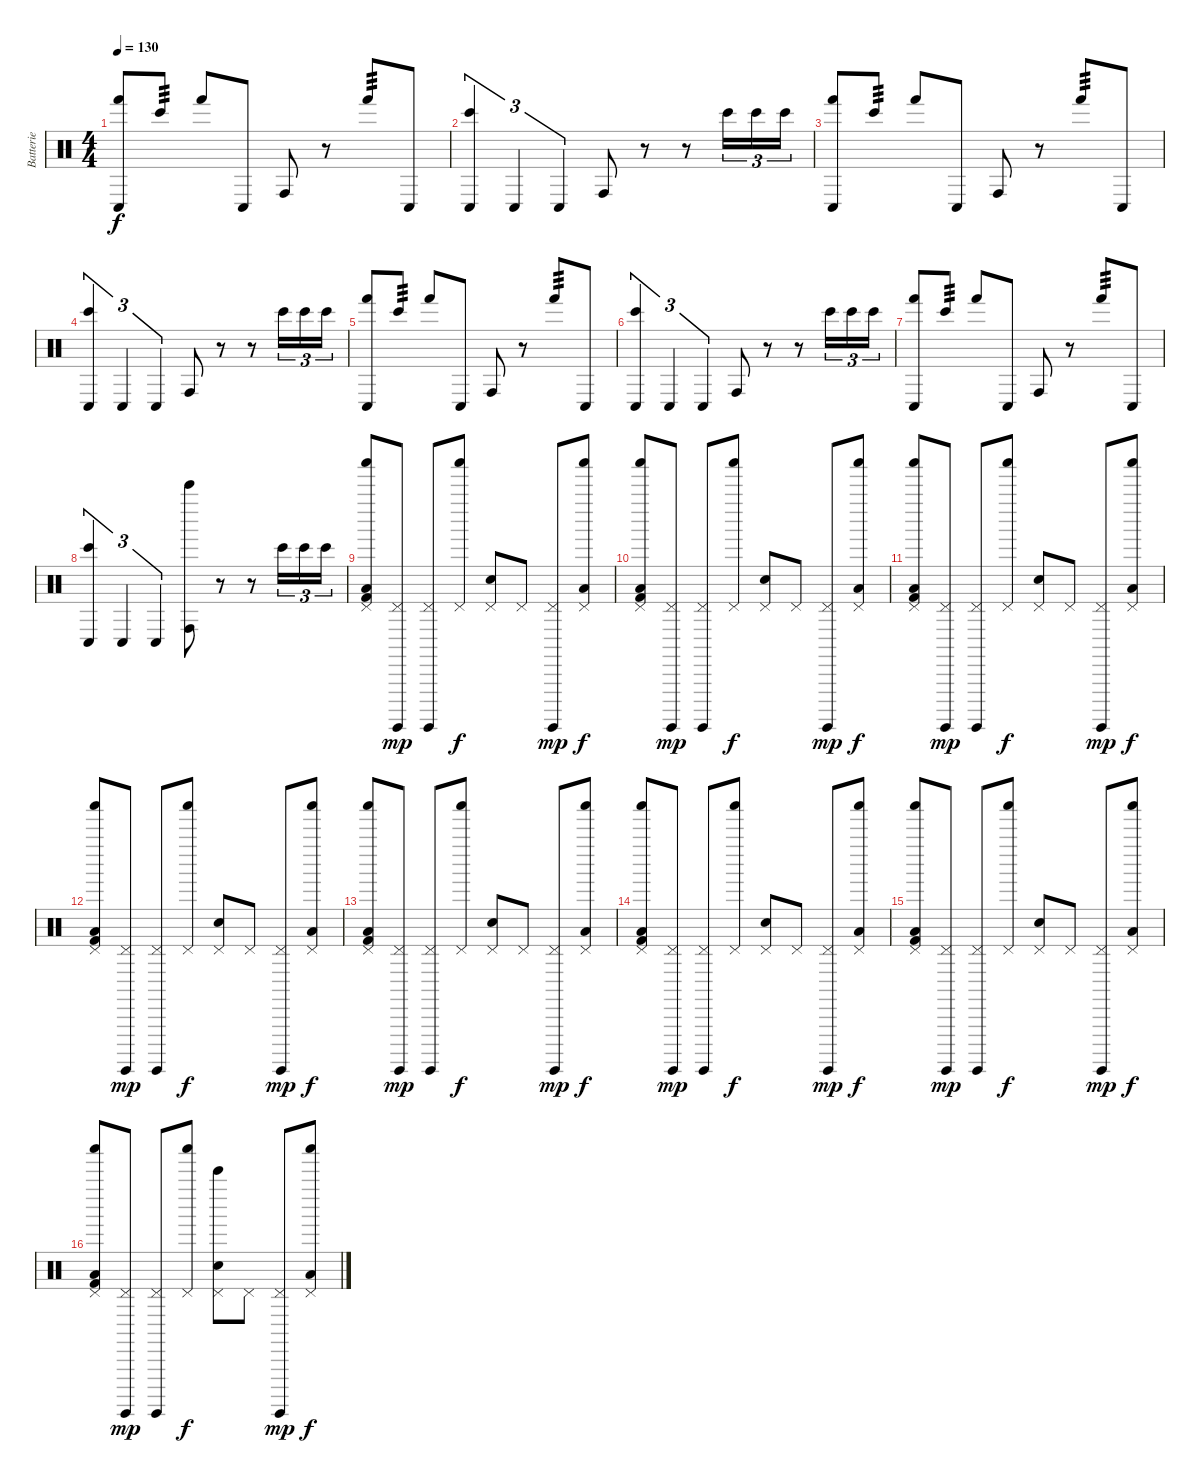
\track ("Batterie" "Batterie") {instrument percussion}
\staff {score}
\articulation defaults
\ts (4 4)
\tempo 130
\clef neutral
\ks c
("Conga low (hit)" "Hand (hit)").8{dy f} "Bongo High (hit)".8{tp 3} "Hand (hit)".8 "Conga low (hit)".8 "Conga high (hit)".8 r.8 "Hand (hit)".8{tp 3} "Conga low (hit)".8 |
("Conga low (hit)" "Bongo High (hit)").4{tu (3 2)} "Conga low (hit)".4{tu (3 2)} "Conga low (hit)".4{tu (3 2)} "Conga high (hit)".8 r.8 r.8 "Bongo High (hit)".16{tu (3 2)} "Bongo High (hit)".16{tu (3 2)} "Bongo High (hit)".16{tu (3 2)} |
("Conga low (hit)" "Hand (hit)").8 "Bongo High (hit)".8{tp 3} "Hand (hit)".8 "Conga low (hit)".8 "Conga high (hit)".8 r.8 "Hand (hit)".8{tp 3} "Conga low (hit)".8 |
("Conga low (hit)" "Bongo High (hit)").4{tu (3 2)} "Conga low (hit)".4{tu (3 2)} "Conga low (hit)".4{tu (3 2)} "Conga high (hit)".8 r.8 r.8 "Bongo High (hit)".16{tu (3 2)} "Bongo High (hit)".16{tu (3 2)} "Bongo High (hit)".16{tu (3 2)} |
("Conga low (hit)" "Hand (hit)").8 "Bongo High (hit)".8{tp 3} "Hand (hit)".8 "Conga low (hit)".8 "Conga high (hit)".8 r.8 "Hand (hit)".8{tp 3} "Conga low (hit)".8 |
("Conga low (hit)" "Bongo High (hit)").4{tu (3 2)} "Conga low (hit)".4{tu (3 2)} "Conga low (hit)".4{tu (3 2)} "Conga high (hit)".8 r.8 r.8 "Bongo High (hit)".16{tu (3 2)} "Bongo High (hit)".16{tu (3 2)} "Bongo High (hit)".16{tu (3 2)} |
("Conga low (hit)" "Hand (hit)").8 "Bongo High (hit)".8{tp 3} "Hand (hit)".8 "Conga low (hit)".8 "Conga high (hit)".8 r.8 "Hand (hit)".8{tp 3} "Conga low (hit)".8 |
("Conga low (hit)" "Bongo High (hit)").4{tu (3 2)} "Conga low (hit)".4{tu (3 2)} "Conga low (hit)".4{tu (3 2)} ("Conga high (hit)" "Bell Tree (hit)").8 r.8 r.8 "Bongo High (hit)".16{tu (3 2)} "Bongo High (hit)".16{tu (3 2)} "Bongo High (hit)".16{tu (3 2)} |
\section ("" "")
("Pedal Hi-Hat (hit)" "Shaker (hit)" "Low Floor Tom (hit)" "Kick (hit) 2").8 ("Pedal Hi-Hat (hit)" "Surdo (hit)").8{dy mp} ("Pedal Hi-Hat (hit)" "Surdo (hit)").8 ("Pedal Hi-Hat (hit)" "Shaker (hit)").8{dy f} ("Pedal Hi-Hat (hit)" "Electric Snare (hit)").8 "Pedal Hi-Hat (hit)".8 ("Pedal Hi-Hat (hit)" "Surdo (hit)").8{dy mp} ("Pedal Hi-Hat (hit)" "Shaker (hit)" "Low Floor Tom (hit)").8{dy f} |
("Pedal Hi-Hat (hit)" "Shaker (hit)" "Low Floor Tom (hit)" "Kick (hit) 2").8 ("Pedal Hi-Hat (hit)" "Surdo (hit)").8{dy mp} ("Pedal Hi-Hat (hit)" "Surdo (hit)").8 ("Pedal Hi-Hat (hit)" "Shaker (hit)").8{dy f} ("Pedal Hi-Hat (hit)" "Electric Snare (hit)").8 "Pedal Hi-Hat (hit)".8 ("Pedal Hi-Hat (hit)" "Surdo (hit)").8{dy mp} ("Pedal Hi-Hat (hit)" "Shaker (hit)" "Low Floor Tom (hit)").8{dy f} |
("Pedal Hi-Hat (hit)" "Shaker (hit)" "Low Floor Tom (hit)" "Kick (hit) 2").8 ("Pedal Hi-Hat (hit)" "Surdo (hit)").8{dy mp} ("Pedal Hi-Hat (hit)" "Surdo (hit)").8 ("Pedal Hi-Hat (hit)" "Shaker (hit)").8{dy f} ("Pedal Hi-Hat (hit)" "Electric Snare (hit)").8 "Pedal Hi-Hat (hit)".8 ("Pedal Hi-Hat (hit)" "Surdo (hit)").8{dy mp} ("Pedal Hi-Hat (hit)" "Shaker (hit)" "Low Floor Tom (hit)").8{dy f} |
("Pedal Hi-Hat (hit)" "Shaker (hit)" "Low Floor Tom (hit)" "Kick (hit) 2").8 ("Pedal Hi-Hat (hit)" "Surdo (hit)").8{dy mp} ("Pedal Hi-Hat (hit)" "Surdo (hit)").8 ("Pedal Hi-Hat (hit)" "Shaker (hit)").8{dy f} ("Pedal Hi-Hat (hit)" "Electric Snare (hit)").8 "Pedal Hi-Hat (hit)".8 ("Pedal Hi-Hat (hit)" "Surdo (hit)").8{dy mp} ("Pedal Hi-Hat (hit)" "Shaker (hit)" "Low Floor Tom (hit)").8{dy f} |
("Pedal Hi-Hat (hit)" "Shaker (hit)" "Low Floor Tom (hit)" "Kick (hit) 2").8 ("Pedal Hi-Hat (hit)" "Surdo (hit)").8{dy mp} ("Pedal Hi-Hat (hit)" "Surdo (hit)").8 ("Pedal Hi-Hat (hit)" "Shaker (hit)").8{dy f} ("Pedal Hi-Hat (hit)" "Electric Snare (hit)").8 "Pedal Hi-Hat (hit)".8 ("Pedal Hi-Hat (hit)" "Surdo (hit)").8{dy mp} ("Pedal Hi-Hat (hit)" "Shaker (hit)" "Low Floor Tom (hit)").8{dy f} |
("Pedal Hi-Hat (hit)" "Shaker (hit)" "Low Floor Tom (hit)" "Kick (hit) 2").8 ("Pedal Hi-Hat (hit)" "Surdo (hit)").8{dy mp} ("Pedal Hi-Hat (hit)" "Surdo (hit)").8 ("Pedal Hi-Hat (hit)" "Shaker (hit)").8{dy f} ("Pedal Hi-Hat (hit)" "Electric Snare (hit)").8 "Pedal Hi-Hat (hit)".8 ("Pedal Hi-Hat (hit)" "Surdo (hit)").8{dy mp} ("Pedal Hi-Hat (hit)" "Shaker (hit)" "Low Floor Tom (hit)").8{dy f} |
("Pedal Hi-Hat (hit)" "Shaker (hit)" "Low Floor Tom (hit)" "Kick (hit) 2").8 ("Pedal Hi-Hat (hit)" "Surdo (hit)").8{dy mp} ("Pedal Hi-Hat (hit)" "Surdo (hit)").8 ("Pedal Hi-Hat (hit)" "Shaker (hit)").8{dy f} ("Pedal Hi-Hat (hit)" "Electric Snare (hit)").8 "Pedal Hi-Hat (hit)".8 ("Pedal Hi-Hat (hit)" "Surdo (hit)").8{dy mp} ("Pedal Hi-Hat (hit)" "Shaker (hit)" "Low Floor Tom (hit)").8{dy f} |
("Pedal Hi-Hat (hit)" "Shaker (hit)" "Low Floor Tom (hit)" "Kick (hit) 2").8 ("Pedal Hi-Hat (hit)" "Surdo (hit)").8{dy mp} ("Pedal Hi-Hat (hit)" "Surdo (hit)").8 ("Pedal Hi-Hat (hit)" "Shaker (hit)").8{dy f} ("Pedal Hi-Hat (hit)" "Bell Tree (hit)" "Electric Snare (hit)").8 "Pedal Hi-Hat (hit)".8 ("Pedal Hi-Hat (hit)" "Surdo (hit)").8{dy mp} ("Pedal Hi-Hat (hit)" "Shaker (hit)" "Low Floor Tom (hit)").8{dy f}
